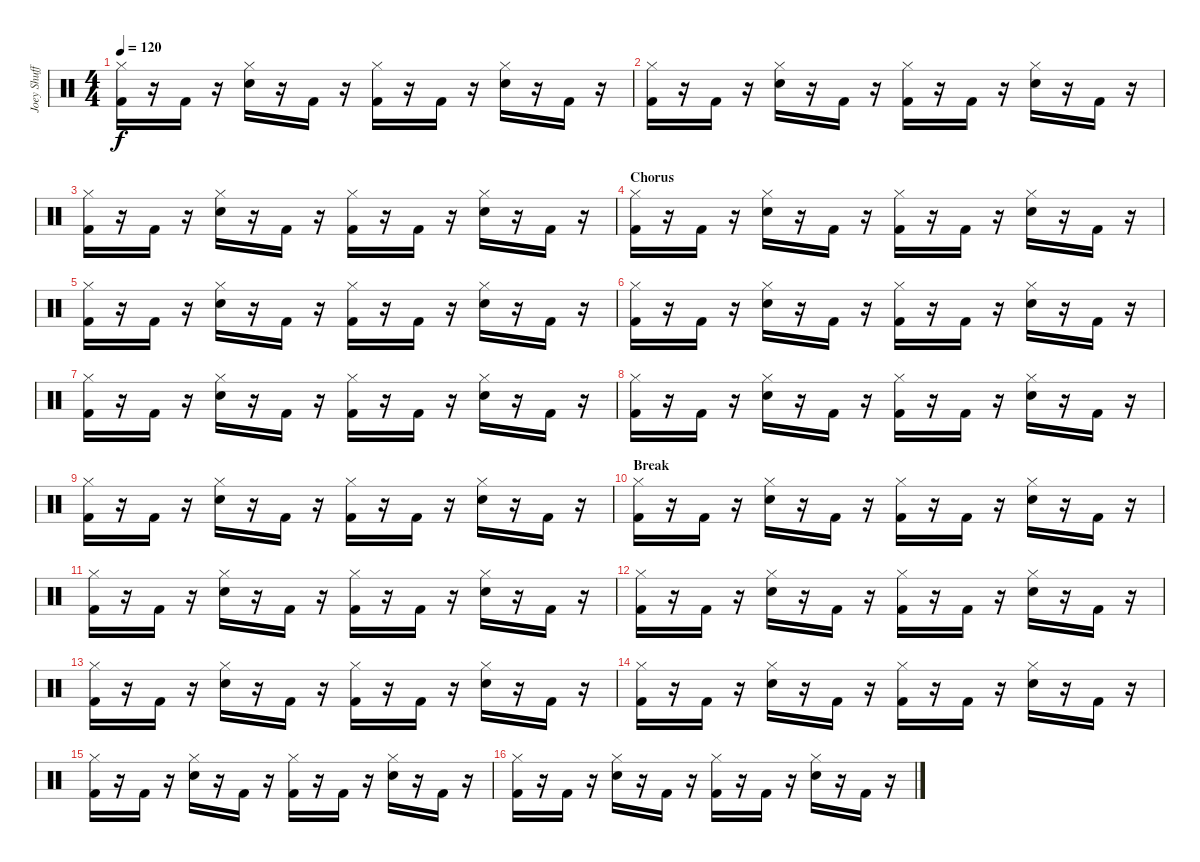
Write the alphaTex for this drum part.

\track ("Joey Shuffield" "Joey Shuff") {instrument percussion}
\staff {score}
\articulation defaults
\ts (4 4)
\tempo 120
\clef neutral
\ks c
("Kick (hit) 2" "Hi-Hat (closed)").16{dy f} r.16 "Kick (hit) 2".16 r.16 ("Snare (hit) 2" "Hi-Hat (closed)").16 r.16 "Kick (hit) 2".16 r.16 ("Kick (hit) 2" "Hi-Hat (closed)").16 r.16 "Kick (hit) 2".16 r.16 ("Snare (hit) 2" "Hi-Hat (closed)").16 r.16 "Kick (hit) 2".16 r.16 |
("Kick (hit) 2" "Hi-Hat (closed)").16 r.16 "Kick (hit) 2".16 r.16 ("Snare (hit) 2" "Hi-Hat (closed)").16 r.16 "Kick (hit) 2".16 r.16 ("Kick (hit) 2" "Hi-Hat (closed)").16 r.16 "Kick (hit) 2".16 r.16 ("Snare (hit) 2" "Hi-Hat (closed)").16 r.16 "Kick (hit) 2".16 r.16 |
("Kick (hit) 2" "Hi-Hat (closed)").16 r.16 "Kick (hit) 2".16 r.16 ("Snare (hit) 2" "Hi-Hat (closed)").16 r.16 "Kick (hit) 2".16 r.16 ("Kick (hit) 2" "Hi-Hat (closed)").16 r.16 "Kick (hit) 2".16 r.16 ("Snare (hit) 2" "Hi-Hat (closed)").16 r.16 "Kick (hit) 2".16 r.16 |
\section ("" "Chorus")
("Kick (hit) 2" "Hi-Hat (closed)").16 r.16 "Kick (hit) 2".16 r.16 ("Snare (hit) 2" "Hi-Hat (closed)").16 r.16 "Kick (hit) 2".16 r.16 ("Kick (hit) 2" "Hi-Hat (closed)").16 r.16 "Kick (hit) 2".16 r.16 ("Snare (hit) 2" "Hi-Hat (closed)").16 r.16 "Kick (hit) 2".16 r.16 |
("Kick (hit) 2" "Hi-Hat (closed)").16 r.16 "Kick (hit) 2".16 r.16 ("Snare (hit) 2" "Hi-Hat (closed)").16 r.16 "Kick (hit) 2".16 r.16 ("Kick (hit) 2" "Hi-Hat (closed)").16 r.16 "Kick (hit) 2".16 r.16 ("Snare (hit) 2" "Hi-Hat (closed)").16 r.16 "Kick (hit) 2".16 r.16 |
("Kick (hit) 2" "Hi-Hat (closed)").16 r.16 "Kick (hit) 2".16 r.16 ("Snare (hit) 2" "Hi-Hat (closed)").16 r.16 "Kick (hit) 2".16 r.16 ("Kick (hit) 2" "Hi-Hat (closed)").16 r.16 "Kick (hit) 2".16 r.16 ("Snare (hit) 2" "Hi-Hat (closed)").16 r.16 "Kick (hit) 2".16 r.16 |
("Kick (hit) 2" "Hi-Hat (closed)").16 r.16 "Kick (hit) 2".16 r.16 ("Snare (hit) 2" "Hi-Hat (closed)").16 r.16 "Kick (hit) 2".16 r.16 ("Kick (hit) 2" "Hi-Hat (closed)").16 r.16 "Kick (hit) 2".16 r.16 ("Snare (hit) 2" "Hi-Hat (closed)").16 r.16 "Kick (hit) 2".16 r.16 |
("Kick (hit) 2" "Hi-Hat (closed)").16 r.16 "Kick (hit) 2".16 r.16 ("Snare (hit) 2" "Hi-Hat (closed)").16 r.16 "Kick (hit) 2".16 r.16 ("Kick (hit) 2" "Hi-Hat (closed)").16 r.16 "Kick (hit) 2".16 r.16 ("Snare (hit) 2" "Hi-Hat (closed)").16 r.16 "Kick (hit) 2".16 r.16 |
("Kick (hit) 2" "Hi-Hat (closed)").16 r.16 "Kick (hit) 2".16 r.16 ("Snare (hit) 2" "Hi-Hat (closed)").16 r.16 "Kick (hit) 2".16 r.16 ("Kick (hit) 2" "Hi-Hat (closed)").16 r.16 "Kick (hit) 2".16 r.16 ("Snare (hit) 2" "Hi-Hat (closed)").16 r.16 "Kick (hit) 2".16 r.16 |
\section ("" "Break")
("Kick (hit) 2" "Hi-Hat (closed)").16 r.16 "Kick (hit) 2".16 r.16 ("Snare (hit) 2" "Hi-Hat (closed)").16 r.16 "Kick (hit) 2".16 r.16 ("Kick (hit) 2" "Hi-Hat (closed)").16 r.16 "Kick (hit) 2".16 r.16 ("Snare (hit) 2" "Hi-Hat (closed)").16 r.16 "Kick (hit) 2".16 r.16 |
("Kick (hit) 2" "Hi-Hat (closed)").16 r.16 "Kick (hit) 2".16 r.16 ("Snare (hit) 2" "Hi-Hat (closed)").16 r.16 "Kick (hit) 2".16 r.16 ("Kick (hit) 2" "Hi-Hat (closed)").16 r.16 "Kick (hit) 2".16 r.16 ("Snare (hit) 2" "Hi-Hat (closed)").16 r.16 "Kick (hit) 2".16 r.16 |
("Kick (hit) 2" "Hi-Hat (closed)").16 r.16 "Kick (hit) 2".16 r.16 ("Snare (hit) 2" "Hi-Hat (closed)").16 r.16 "Kick (hit) 2".16 r.16 ("Kick (hit) 2" "Hi-Hat (closed)").16 r.16 "Kick (hit) 2".16 r.16 ("Snare (hit) 2" "Hi-Hat (closed)").16 r.16 "Kick (hit) 2".16 r.16 |
("Kick (hit) 2" "Hi-Hat (closed)").16 r.16 "Kick (hit) 2".16 r.16 ("Snare (hit) 2" "Hi-Hat (closed)").16 r.16 "Kick (hit) 2".16 r.16 ("Kick (hit) 2" "Hi-Hat (closed)").16 r.16 "Kick (hit) 2".16 r.16 ("Snare (hit) 2" "Hi-Hat (closed)").16 r.16 "Kick (hit) 2".16 r.16 |
("Kick (hit) 2" "Hi-Hat (closed)").16 r.16 "Kick (hit) 2".16 r.16 ("Snare (hit) 2" "Hi-Hat (closed)").16 r.16 "Kick (hit) 2".16 r.16 ("Kick (hit) 2" "Hi-Hat (closed)").16 r.16 "Kick (hit) 2".16 r.16 ("Snare (hit) 2" "Hi-Hat (closed)").16 r.16 "Kick (hit) 2".16 r.16 |
("Kick (hit) 2" "Hi-Hat (closed)").16 r.16 "Kick (hit) 2".16 r.16 ("Snare (hit) 2" "Hi-Hat (closed)").16 r.16 "Kick (hit) 2".16 r.16 ("Kick (hit) 2" "Hi-Hat (closed)").16 r.16 "Kick (hit) 2".16 r.16 ("Snare (hit) 2" "Hi-Hat (closed)").16 r.16 "Kick (hit) 2".16 r.16 |
("Kick (hit) 2" "Hi-Hat (closed)").16 r.16 "Kick (hit) 2".16 r.16 ("Snare (hit) 2" "Hi-Hat (closed)").16 r.16 "Kick (hit) 2".16 r.16 ("Kick (hit) 2" "Hi-Hat (closed)").16 r.16 "Kick (hit) 2".16 r.16 ("Snare (hit) 2" "Hi-Hat (closed)").16 r.16 "Kick (hit) 2".16 r.16
